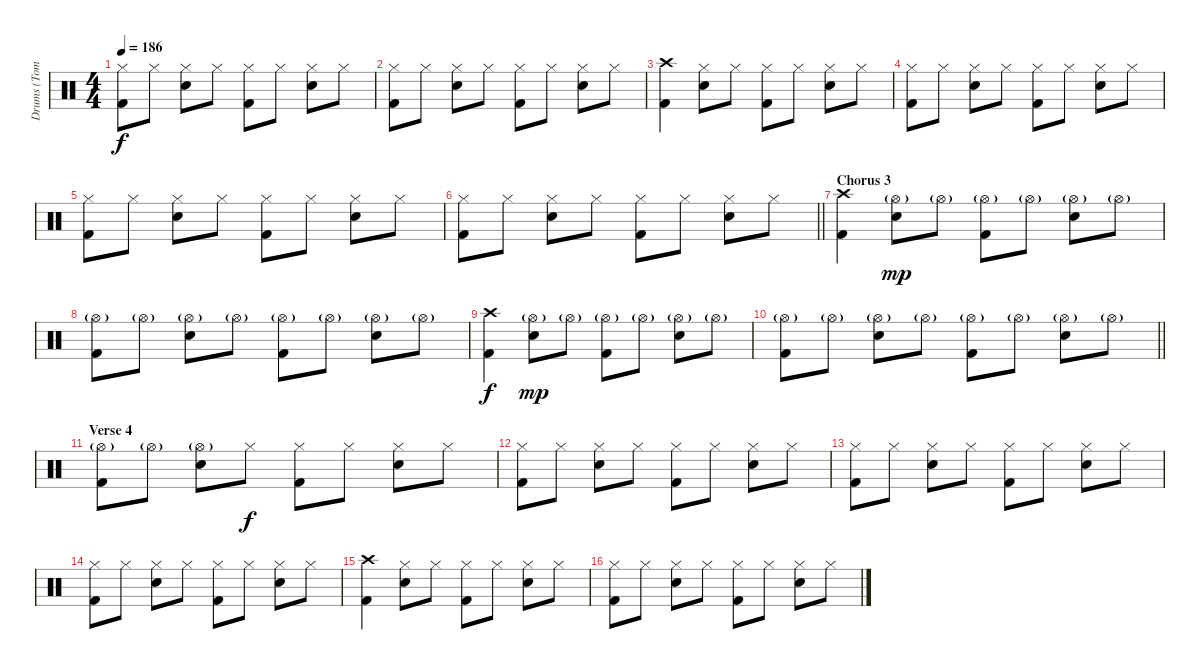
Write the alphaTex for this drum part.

\track ("Drums (Tommy)" "Drums (Tom") {instrument percussion}
\staff {score}
\articulation defaults
\ts (4 4)
\tempo 186
\clef neutral
\ks c
("Hi-Hat (closed)" "Kick (hit) 2").8{dy f} "Hi-Hat (closed)".8 ("Hi-Hat (closed)" "Electric Snare (hit)").8 "Hi-Hat (closed)".8 ("Hi-Hat (closed)" "Kick (hit) 2").8 "Hi-Hat (closed)".8 ("Hi-Hat (closed)" "Electric Snare (hit)").8 "Hi-Hat (closed)".8 |
("Hi-Hat (closed)" "Kick (hit) 2").8 "Hi-Hat (closed)".8 ("Hi-Hat (closed)" "Electric Snare (hit)").8 "Hi-Hat (closed)".8 ("Hi-Hat (closed)" "Kick (hit) 2").8 "Hi-Hat (closed)".8 ("Hi-Hat (closed)" "Electric Snare (hit)").8 "Hi-Hat (closed)".8 |
("Crash high (hit)" "Kick (hit) 2").4 ("Hi-Hat (closed)" "Electric Snare (hit)").8 "Hi-Hat (closed)".8 ("Hi-Hat (closed)" "Kick (hit) 2").8 "Hi-Hat (closed)".8 ("Hi-Hat (closed)" "Electric Snare (hit)").8 "Hi-Hat (closed)".8 |
("Hi-Hat (closed)" "Kick (hit) 2").8 "Hi-Hat (closed)".8 ("Hi-Hat (closed)" "Electric Snare (hit)").8 "Hi-Hat (closed)".8 ("Hi-Hat (closed)" "Kick (hit) 2").8 "Hi-Hat (closed)".8 ("Hi-Hat (closed)" "Electric Snare (hit)").8 "Hi-Hat (closed)".8 |
("Hi-Hat (closed)" "Kick (hit) 2").8 "Hi-Hat (closed)".8 ("Hi-Hat (closed)" "Electric Snare (hit)").8 "Hi-Hat (closed)".8 ("Hi-Hat (closed)" "Kick (hit) 2").8 "Hi-Hat (closed)".8 ("Hi-Hat (closed)" "Electric Snare (hit)").8 "Hi-Hat (closed)".8 |
\barLineRight lightlight
("Hi-Hat (closed)" "Kick (hit) 2").8 "Hi-Hat (closed)".8 ("Hi-Hat (closed)" "Electric Snare (hit)").8 "Hi-Hat (closed)".8 ("Hi-Hat (closed)" "Kick (hit) 2").8 "Hi-Hat (closed)".8 ("Hi-Hat (closed)" "Electric Snare (hit)").8 "Hi-Hat (closed)".8 |
\section ("" "Chorus 3")
("Crash high (hit)" "Kick (hit) 2").4 ("Hi-Hat (open)"{g} "Electric Snare (hit)").8{dy mp} "Hi-Hat (open)"{g}.8 ("Hi-Hat (open)"{g} "Kick (hit) 2").8 "Hi-Hat (open)"{g}.8 ("Hi-Hat (open)"{g} "Electric Snare (hit)").8 "Hi-Hat (open)"{g}.8 |
("Hi-Hat (open)"{g} "Kick (hit) 2").8 "Hi-Hat (open)"{g}.8 ("Hi-Hat (open)"{g} "Electric Snare (hit)").8 "Hi-Hat (open)"{g}.8 ("Hi-Hat (open)"{g} "Kick (hit) 2").8 "Hi-Hat (open)"{g}.8 ("Hi-Hat (open)"{g} "Electric Snare (hit)").8 "Hi-Hat (open)"{g}.8 |
("Crash high (hit)" "Kick (hit) 2").4{dy f} ("Hi-Hat (open)"{g} "Electric Snare (hit)").8{dy mp} "Hi-Hat (open)"{g}.8 ("Hi-Hat (open)"{g} "Kick (hit) 2").8 "Hi-Hat (open)"{g}.8 ("Hi-Hat (open)"{g} "Electric Snare (hit)").8 "Hi-Hat (open)"{g}.8 |
\barLineRight lightlight
("Hi-Hat (open)"{g} "Kick (hit) 2").8 "Hi-Hat (open)"{g}.8 ("Hi-Hat (open)"{g} "Electric Snare (hit)").8 "Hi-Hat (open)"{g}.8 ("Hi-Hat (open)"{g} "Kick (hit) 2").8 "Hi-Hat (open)"{g}.8 ("Hi-Hat (open)"{g} "Electric Snare (hit)").8 "Hi-Hat (open)"{g}.8 |
\section ("" "Verse 4")
("Hi-Hat (open)"{g} "Kick (hit) 2").8 "Hi-Hat (open)"{g}.8 ("Hi-Hat (open)"{g} "Electric Snare (hit)").8 "Hi-Hat (closed)".8{dy f} ("Hi-Hat (closed)" "Kick (hit) 2").8 "Hi-Hat (closed)".8 ("Hi-Hat (closed)" "Electric Snare (hit)").8 "Hi-Hat (closed)".8 |
("Hi-Hat (closed)" "Kick (hit) 2").8 "Hi-Hat (closed)".8 ("Hi-Hat (closed)" "Electric Snare (hit)").8 "Hi-Hat (closed)".8 ("Hi-Hat (closed)" "Kick (hit) 2").8 "Hi-Hat (closed)".8 ("Hi-Hat (closed)" "Electric Snare (hit)").8 "Hi-Hat (closed)".8 |
("Hi-Hat (closed)" "Kick (hit) 2").8 "Hi-Hat (closed)".8 ("Hi-Hat (closed)" "Electric Snare (hit)").8 "Hi-Hat (closed)".8 ("Hi-Hat (closed)" "Kick (hit) 2").8 "Hi-Hat (closed)".8 ("Hi-Hat (closed)" "Electric Snare (hit)").8 "Hi-Hat (closed)".8 |
("Hi-Hat (closed)" "Kick (hit) 2").8 "Hi-Hat (closed)".8 ("Hi-Hat (closed)" "Electric Snare (hit)").8 "Hi-Hat (closed)".8 ("Hi-Hat (closed)" "Kick (hit) 2").8 "Hi-Hat (closed)".8 ("Hi-Hat (closed)" "Electric Snare (hit)").8 "Hi-Hat (closed)".8 |
("Crash high (hit)" "Kick (hit) 2").4 ("Hi-Hat (closed)" "Electric Snare (hit)").8 "Hi-Hat (closed)".8 ("Hi-Hat (closed)" "Kick (hit) 2").8 "Hi-Hat (closed)".8 ("Hi-Hat (closed)" "Electric Snare (hit)").8 "Hi-Hat (closed)".8 |
("Hi-Hat (closed)" "Kick (hit) 2").8 "Hi-Hat (closed)".8 ("Hi-Hat (closed)" "Electric Snare (hit)").8 "Hi-Hat (closed)".8 ("Hi-Hat (closed)" "Kick (hit) 2").8 "Hi-Hat (closed)".8 ("Hi-Hat (closed)" "Electric Snare (hit)").8 "Hi-Hat (closed)".8
